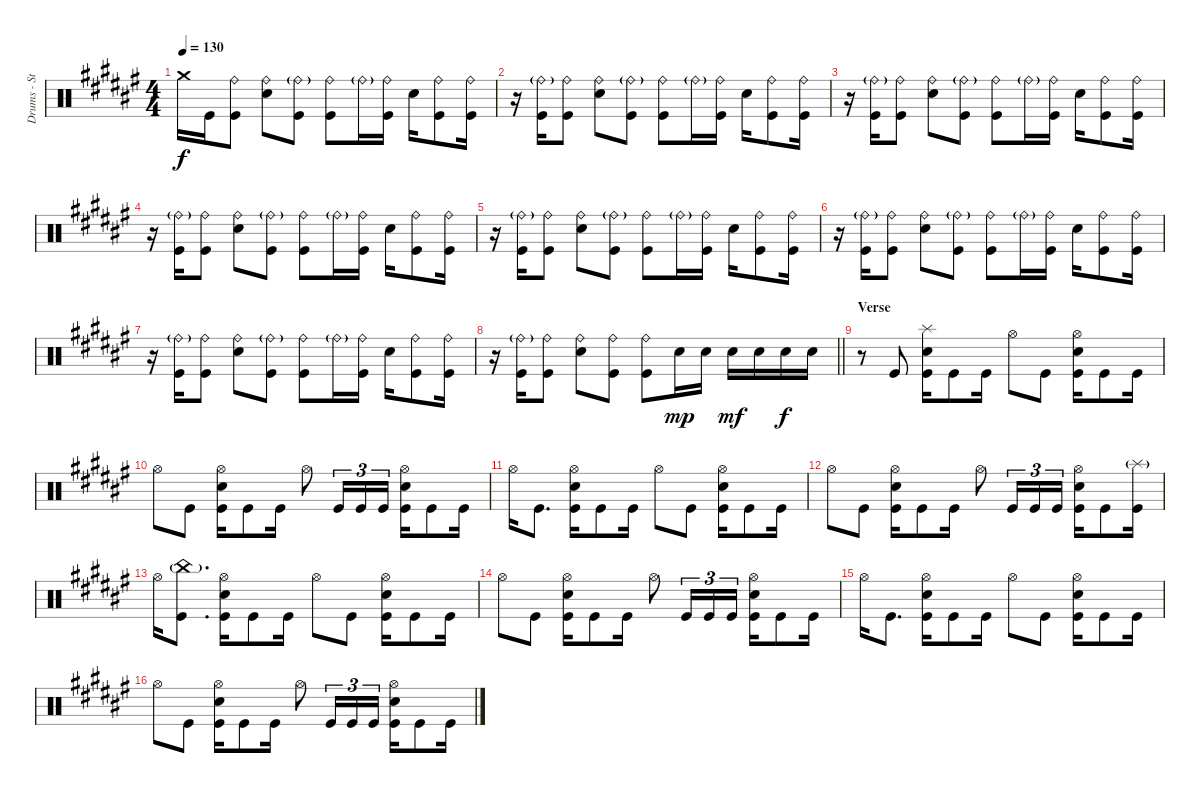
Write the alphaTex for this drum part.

\track ("Drums - Stef Broks" "Drums - St") {instrument percussion}
\staff {score}
\articulation defaults
\ts (4 4)
\tempo 130
\clef neutral
\ks d#minor "Crash medium (hit)".16{dy f} "Kick (hit)".16
("Kick (hit)" "Ride (bell)").8 ("Ride (bell)" "Snare (hit) 2").8 ("Ride (bell)"{g} "Kick (hit)").8 ("Ride (bell)" "Kick (hit)").8 "Ride (bell)"{g}.16 ("Ride (bell)" "Kick (hit)").16 "Snare (hit) 2".16 ("Kick (hit)" "Ride (bell)").8 ("Kick (hit)" "Ride (bell)").16 |
r.16 ("Kick (hit)" "Ride (bell)"{g}).16 ("Kick (hit)" "Ride (bell)").8 ("Ride (bell)" "Snare (hit) 2").8 ("Ride (bell)"{g} "Kick (hit)").8 ("Ride (bell)" "Kick (hit)").8 "Ride (bell)"{g}.16 ("Ride (bell)" "Kick (hit)").16 "Snare (hit) 2".16 ("Kick (hit)" "Ride (bell)").8 ("Kick (hit)" "Ride (bell)").16 |
r.16 ("Kick (hit)" "Ride (bell)"{g}).16 ("Kick (hit)" "Ride (bell)").8 ("Ride (bell)" "Snare (hit) 2").8 ("Ride (bell)"{g} "Kick (hit)").8 ("Ride (bell)" "Kick (hit)").8 "Ride (bell)"{g}.16 ("Ride (bell)" "Kick (hit)").16 "Snare (hit) 2".16 ("Kick (hit)" "Ride (bell)").8 ("Kick (hit)" "Ride (bell)").16 |
r.16 ("Kick (hit)" "Ride (bell)"{g}).16 ("Kick (hit)" "Ride (bell)").8 ("Ride (bell)" "Snare (hit) 2").8 ("Ride (bell)"{g} "Kick (hit)").8 ("Ride (bell)" "Kick (hit)").8 "Ride (bell)"{g}.16 ("Ride (bell)" "Kick (hit)").16 "Snare (hit) 2".16 ("Kick (hit)" "Ride (bell)").8 ("Kick (hit)" "Ride (bell)").16 |
r.16 ("Kick (hit)" "Ride (bell)"{g}).16 ("Kick (hit)" "Ride (bell)").8 ("Ride (bell)" "Snare (hit) 2").8 ("Ride (bell)"{g} "Kick (hit)").8 ("Ride (bell)" "Kick (hit)").8 "Ride (bell)"{g}.16 ("Ride (bell)" "Kick (hit)").16 "Snare (hit) 2".16 ("Kick (hit)" "Ride (bell)").8 ("Kick (hit)" "Ride (bell)").16 |
r.16 ("Kick (hit)" "Ride (bell)"{g}).16 ("Kick (hit)" "Ride (bell)").8 ("Ride (bell)" "Snare (hit) 2").8 ("Ride (bell)"{g} "Kick (hit)").8 ("Ride (bell)" "Kick (hit)").8 "Ride (bell)"{g}.16 ("Ride (bell)" "Kick (hit)").16 "Snare (hit) 2".16 ("Kick (hit)" "Ride (bell)").8 ("Kick (hit)" "Ride (bell)").16 |
r.16 ("Kick (hit)" "Ride (bell)"{g}).16 ("Kick (hit)" "Ride (bell)").8 ("Ride (bell)" "Snare (hit) 2").8 ("Ride (bell)"{g} "Kick (hit)").8 ("Ride (bell)" "Kick (hit)").8 "Ride (bell)"{g}.16 ("Ride (bell)" "Kick (hit)").16 "Snare (hit) 2".16 ("Kick (hit)" "Ride (bell)").8 ("Kick (hit)" "Ride (bell)").16 |
\barLineRight lightlight
r.16 ("Kick (hit)" "Ride (bell)"{g}).16 ("Kick (hit)" "Ride (bell)").8 ("Ride (bell)" "Snare (hit) 2").8 ("Ride (bell)" "Kick (hit)").8 ("Ride (bell)" "Kick (hit)").8 "Snare (hit) 2".16{dy mp} "Snare (hit) 2".16 "Snare (hit) 2".16{dy mf} "Snare (hit) 2".16 "Snare (hit) 2".16{dy f} "Snare (hit) 2".16 |
\section ("" "Verse")
r.8 "Kick (hit)".8 ("Snare (hit) 2" "Splash (hit)" "Kick (hit)").16 "Kick (hit)".8 "Kick (hit)".16 "Hi-Hat (open)".8 "Kick (hit)".8 ("Snare (hit) 2" "Kick (hit)" "Hi-Hat (open)").16 "Kick (hit)".8 "Kick (hit)".16 |
"Hi-Hat (open)".8 "Kick (hit)".8 ("Kick (hit)" "Snare (hit) 2" "Hi-Hat (open)").16 "Kick (hit)".8 "Kick (hit)".16 "Hi-Hat (open)".8 "Kick (hit)".16{tu (3 2)} "Kick (hit)".16{tu (3 2)} "Kick (hit)".16{tu (3 2)} ("Snare (hit) 2" "Kick (hit)" "Hi-Hat (open)").16 "Kick (hit)".8 "Kick (hit)".16 |
"Hi-Hat (open)".16 "Kick (hit)".8{d} ("Snare (hit) 2" "Kick (hit)" "Hi-Hat (open)").16 "Kick (hit)".8 "Kick (hit)".16 "Hi-Hat (open)".8 "Kick (hit)".8 ("Kick (hit)" "Snare (hit) 2" "Hi-Hat (open)").16 "Kick (hit)".8 "Kick (hit)".16 |
"Hi-Hat (open)".8 "Kick (hit)".8 ("Kick (hit)" "Snare (hit) 2" "Hi-Hat (open)").16 "Kick (hit)".8 "Kick (hit)".16 "Hi-Hat (open)".8 "Kick (hit)".16{tu (3 2)} "Kick (hit)".16{tu (3 2)} "Kick (hit)".16{tu (3 2)} ("Snare (hit) 2" "Kick (hit)" "Hi-Hat (open)").16 "Kick (hit)".8 ("Kick (hit)" "Splash (hit)"{g}).16 |
"Hi-Hat (open)".16 ("Kick (hit)" "China (hit)"{g}).8{d} ("Snare (hit) 2" "Kick (hit)" "Hi-Hat (open)").16 "Kick (hit)".8 "Kick (hit)".16 "Hi-Hat (open)".8 "Kick (hit)".8 ("Kick (hit)" "Snare (hit) 2" "Hi-Hat (open)").16 "Kick (hit)".8 "Kick (hit)".16 |
"Hi-Hat (open)".8 "Kick (hit)".8 ("Kick (hit)" "Snare (hit) 2" "Hi-Hat (open)").16 "Kick (hit)".8 "Kick (hit)".16 "Hi-Hat (open)".8 "Kick (hit)".16{tu (3 2)} "Kick (hit)".16{tu (3 2)} "Kick (hit)".16{tu (3 2)} ("Snare (hit) 2" "Kick (hit)" "Hi-Hat (open)").16 "Kick (hit)".8 "Kick (hit)".16 |
"Hi-Hat (open)".16 "Kick (hit)".8{d} ("Snare (hit) 2" "Kick (hit)" "Hi-Hat (open)").16 "Kick (hit)".8 "Kick (hit)".16 "Hi-Hat (open)".8 "Kick (hit)".8 ("Kick (hit)" "Snare (hit) 2" "Hi-Hat (open)").16 "Kick (hit)".8 "Kick (hit)".16 |
"Hi-Hat (open)".8 "Kick (hit)".8 ("Kick (hit)" "Snare (hit) 2" "Hi-Hat (open)").16 "Kick (hit)".8 "Kick (hit)".16 "Hi-Hat (open)".8 "Kick (hit)".16{tu (3 2)} "Kick (hit)".16{tu (3 2)} "Kick (hit)".16{tu (3 2)} ("Snare (hit) 2" "Kick (hit)" "Hi-Hat (open)").16 "Kick (hit)".8 "Kick (hit)".16
